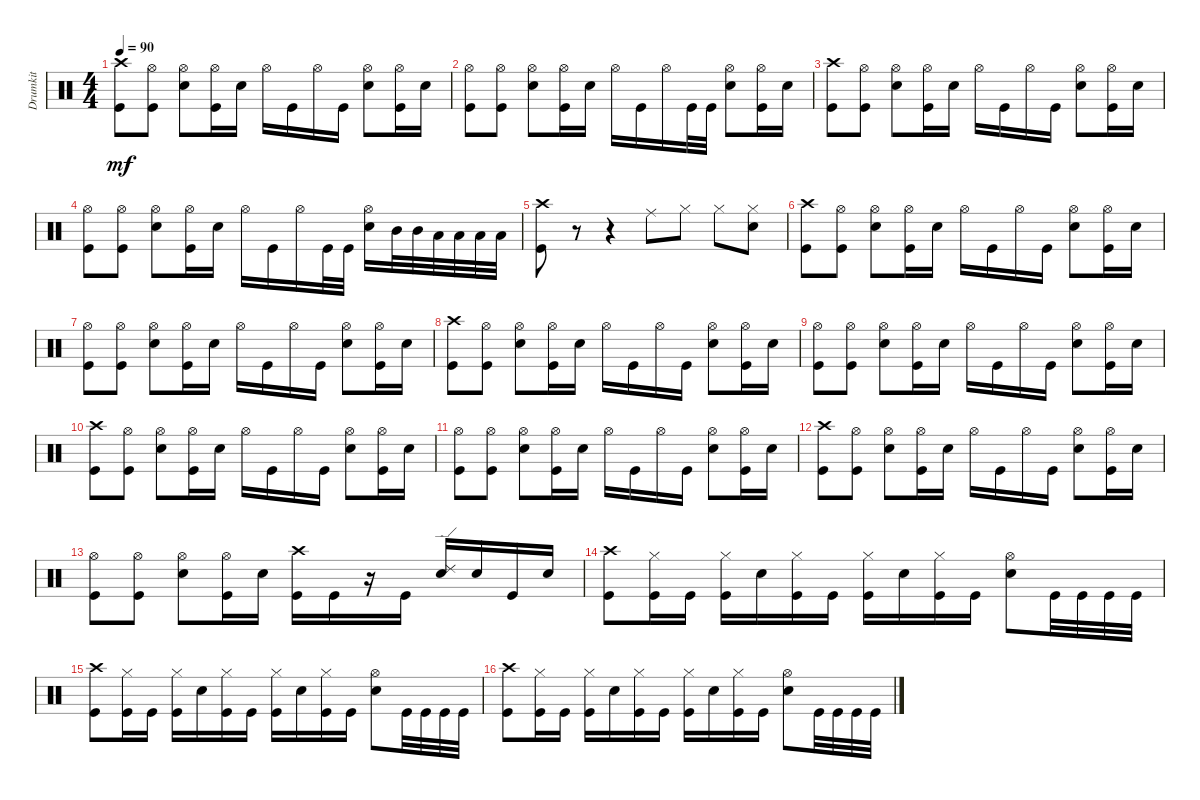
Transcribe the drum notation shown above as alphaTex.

\track ("Drumkit" "Drumkit") {instrument percussion}
\staff {score}
\articulation defaults
\ts (4 4)
\tempo 90
\clef neutral
\ks c
("Kick (hit)" "Crash high (hit)").8{dy mf} ("Kick (hit)" "Hi-Hat (open)").8 ("Snare (hit) 2" "Hi-Hat (open)").8 ("Kick (hit)" "Hi-Hat (open)").16 "Snare (hit) 2".16 "Hi-Hat (open)".16 "Kick (hit)".16 "Hi-Hat (open)".16 "Kick (hit)".16 ("Snare (hit) 2" "Hi-Hat (open)").8 ("Kick (hit)" "Hi-Hat (open)").16 "Snare (hit) 2".16 |
("Kick (hit)" "Hi-Hat (open)").8 ("Kick (hit)" "Hi-Hat (open)").8 ("Snare (hit) 2" "Hi-Hat (open)").8 ("Kick (hit)" "Hi-Hat (open)").16 "Snare (hit) 2".16 "Hi-Hat (open)".16 "Kick (hit)".16 "Hi-Hat (open)".16 "Kick (hit)".32 "Kick (hit)".32 ("Snare (hit) 2" "Hi-Hat (open)").8 ("Kick (hit)" "Hi-Hat (open)").16 "Snare (hit) 2".16 |
("Kick (hit)" "Crash high (hit)").8 ("Kick (hit)" "Hi-Hat (open)").8 ("Snare (hit) 2" "Hi-Hat (open)").8 ("Kick (hit)" "Hi-Hat (open)").16 "Snare (hit) 2".16 "Hi-Hat (open)".16 "Kick (hit)".16 "Hi-Hat (open)".16 "Kick (hit)".16 ("Snare (hit) 2" "Hi-Hat (open)").8 ("Kick (hit)" "Hi-Hat (open)").16 "Snare (hit) 2".16 |
("Kick (hit)" "Hi-Hat (open)").8 ("Kick (hit)" "Hi-Hat (open)").8 ("Snare (hit) 2" "Hi-Hat (open)").8 ("Kick (hit)" "Hi-Hat (open)").16 "Snare (hit) 2".16 "Hi-Hat (open)".16 "Kick (hit)".16 "Hi-Hat (open)".16 "Kick (hit)".32 "Kick (hit)".32 ("Snare (hit) 2" "Hi-Hat (open)").16 "Mid Tom (hit)".32 "Mid Tom (hit)".32 "Low Tom (hit)".32 "Low Tom (hit)".32 "Low Floor Tom (hit)".32 "Low Floor Tom (hit)".32 |
("Kick (hit)" "Crash high (hit)").8 r.8 r.4 "Ride (middle)".8 "Hi-Hat (closed)".8 "Hi-Hat (closed)".8 ("Hi-Hat (closed)" "Snare (hit) 2").8 |
("Kick (hit)" "Crash high (hit)").8 ("Kick (hit)" "Hi-Hat (open)").8 ("Snare (hit) 2" "Hi-Hat (open)").8 ("Kick (hit)" "Hi-Hat (open)").16 "Snare (hit) 2".16 "Hi-Hat (open)".16 "Kick (hit)".16 "Hi-Hat (open)".16 "Kick (hit)".16 ("Snare (hit) 2" "Hi-Hat (open)").8 ("Kick (hit)" "Hi-Hat (open)").16 "Snare (hit) 2".16 |
("Kick (hit)" "Hi-Hat (open)").8 ("Kick (hit)" "Hi-Hat (open)").8 ("Snare (hit) 2" "Hi-Hat (open)").8 ("Kick (hit)" "Hi-Hat (open)").16 "Snare (hit) 2".16 "Hi-Hat (open)".16 "Kick (hit)".16 "Hi-Hat (open)".16 "Kick (hit)".16 ("Snare (hit) 2" "Hi-Hat (open)").8 ("Kick (hit)" "Hi-Hat (open)").16 "Snare (hit) 2".16 |
("Kick (hit)" "Crash high (hit)").8 ("Kick (hit)" "Hi-Hat (open)").8 ("Snare (hit) 2" "Hi-Hat (open)").8 ("Kick (hit)" "Hi-Hat (open)").16 "Snare (hit) 2".16 "Hi-Hat (open)".16 "Kick (hit)".16 "Hi-Hat (open)".16 "Kick (hit)".16 ("Snare (hit) 2" "Hi-Hat (open)").8 ("Kick (hit)" "Hi-Hat (open)").16 "Snare (hit) 2".16 |
("Kick (hit)" "Hi-Hat (open)").8 ("Kick (hit)" "Hi-Hat (open)").8 ("Snare (hit) 2" "Hi-Hat (open)").8 ("Kick (hit)" "Hi-Hat (open)").16 "Snare (hit) 2".16 "Hi-Hat (open)".16 "Kick (hit)".16 "Hi-Hat (open)".16 "Kick (hit)".16 ("Snare (hit) 2" "Hi-Hat (open)").8 ("Kick (hit)" "Hi-Hat (open)").16 "Snare (hit) 2".16 |
("Kick (hit)" "Crash high (hit)").8 ("Kick (hit)" "Hi-Hat (open)").8 ("Snare (hit) 2" "Hi-Hat (open)").8 ("Kick (hit)" "Hi-Hat (open)").16 "Snare (hit) 2".16 "Hi-Hat (open)".16 "Kick (hit)".16 "Hi-Hat (open)".16 "Kick (hit)".16 ("Snare (hit) 2" "Hi-Hat (open)").8 ("Kick (hit)" "Hi-Hat (open)").16 "Snare (hit) 2".16 |
("Kick (hit)" "Hi-Hat (open)").8 ("Kick (hit)" "Hi-Hat (open)").8 ("Snare (hit) 2" "Hi-Hat (open)").8 ("Kick (hit)" "Hi-Hat (open)").16 "Snare (hit) 2".16 "Hi-Hat (open)".16 "Kick (hit)".16 "Hi-Hat (open)".16 "Kick (hit)".16 ("Snare (hit) 2" "Hi-Hat (open)").8 ("Kick (hit)" "Hi-Hat (open)").16 "Snare (hit) 2".16 |
("Kick (hit)" "Crash high (hit)").8 ("Kick (hit)" "Hi-Hat (open)").8 ("Snare (hit) 2" "Hi-Hat (open)").8 ("Kick (hit)" "Hi-Hat (open)").16 "Snare (hit) 2".16 "Hi-Hat (open)".16 "Kick (hit)".16 "Hi-Hat (open)".16 "Kick (hit)".16 ("Snare (hit) 2" "Hi-Hat (open)").8 ("Kick (hit)" "Hi-Hat (open)").16 "Snare (hit) 2".16 |
("Kick (hit)" "Hi-Hat (open)").8 ("Kick (hit)" "Hi-Hat (open)").8 ("Snare (hit) 2" "Hi-Hat (open)").8 ("Kick (hit)" "Hi-Hat (open)").16 "Snare (hit) 2".16 ("Kick (hit)" "Crash high (hit)").16 "Kick (hit)".16 r.16 "Kick (hit)".16 ("Snare (hit) 2" "Ride (edge) 2").16 "Snare (hit) 2".16 "Kick (hit)".16 "Snare (hit) 2".16 |
("Kick (hit)" "Crash high (hit)").8 ("Kick (hit)" "Hi-Hat (closed)").16 "Kick (hit)".16 ("Kick (hit)" "Hi-Hat (closed)").16 "Snare (hit) 2".16 ("Kick (hit)" "Hi-Hat (closed)").16 "Kick (hit)".16 ("Kick (hit)" "Hi-Hat (closed)").16 "Snare (hit) 2".16 ("Kick (hit)" "Hi-Hat (closed)").16 "Kick (hit)".16 ("Snare (hit) 2" "Hi-Hat (open)").8 "Kick (hit)".32 "Kick (hit)".32 "Kick (hit)".32 "Kick (hit)".32 |
("Kick (hit)" "Crash high (hit)").8 ("Kick (hit)" "Hi-Hat (closed)").16 "Kick (hit)".16 ("Kick (hit)" "Hi-Hat (closed)").16 "Snare (hit) 2".16 ("Kick (hit)" "Hi-Hat (closed)").16 "Kick (hit)".16 ("Kick (hit)" "Hi-Hat (closed)").16 "Snare (hit) 2".16 ("Kick (hit)" "Hi-Hat (closed)").16 "Kick (hit)".16 ("Snare (hit) 2" "Hi-Hat (open)").8 "Kick (hit)".32 "Kick (hit)".32 "Kick (hit)".32 "Kick (hit)".32 |
("Kick (hit)" "Crash high (hit)").8 ("Kick (hit)" "Hi-Hat (closed)").16 "Kick (hit)".16 ("Kick (hit)" "Hi-Hat (closed)").16 "Snare (hit) 2".16 ("Kick (hit)" "Hi-Hat (closed)").16 "Kick (hit)".16 ("Kick (hit)" "Hi-Hat (closed)").16 "Snare (hit) 2".16 ("Kick (hit)" "Hi-Hat (closed)").16 "Kick (hit)".16 ("Snare (hit) 2" "Hi-Hat (open)").8 "Kick (hit)".32 "Kick (hit)".32 "Kick (hit)".32 "Kick (hit)".32
